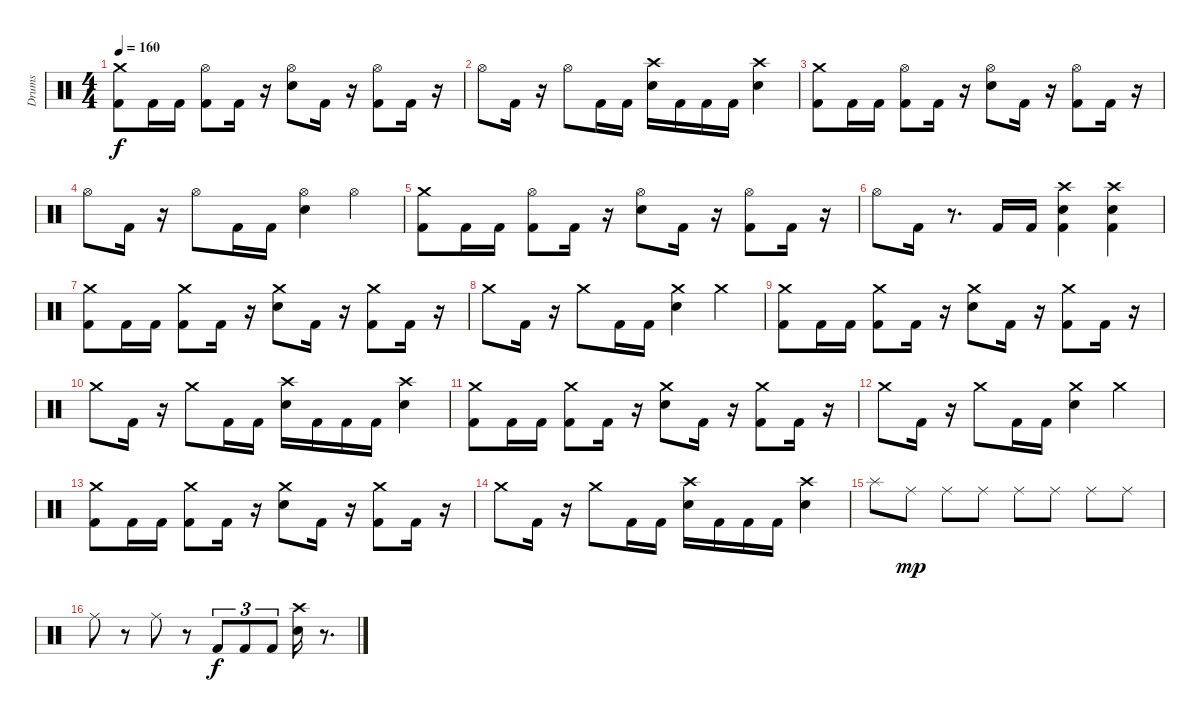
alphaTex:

\track ("Drums" "Drums") {instrument percussion}
\staff {score}
\articulation defaults
\ts (4 4)
\tempo 160
\clef neutral
\ks c
("Kick (hit) 2" "Crash medium (hit)").8{dy f} "Kick (hit) 2".16 "Kick (hit) 2".16 ("Kick (hit) 2" "Hi-Hat (open)").8 "Kick (hit) 2".16 r.16 ("Electric Snare (hit)" "Hi-Hat (open)").8 "Kick (hit) 2".16 r.16 ("Kick (hit) 2" "Hi-Hat (open)").8 "Kick (hit) 2".16 r.16 |
"Hi-Hat (open)".8 "Kick (hit) 2".16 r.16 "Hi-Hat (open)".8 "Kick (hit) 2".16 "Kick (hit) 2".16 ("Electric Snare (hit)" "Crash high (hit)").16 "Kick (hit) 2".16 "Kick (hit) 2".16 "Kick (hit) 2".16 ("Electric Snare (hit)" "Crash high (hit)").4 |
("Kick (hit) 2" "Crash medium (hit)").8 "Kick (hit) 2".16 "Kick (hit) 2".16 ("Kick (hit) 2" "Hi-Hat (open)").8 "Kick (hit) 2".16 r.16 ("Electric Snare (hit)" "Hi-Hat (open)").8 "Kick (hit) 2".16 r.16 ("Kick (hit) 2" "Hi-Hat (open)").8 "Kick (hit) 2".16 r.16 |
"Hi-Hat (open)".8 "Kick (hit) 2".16 r.16 "Hi-Hat (open)".8 "Kick (hit) 2".16 "Kick (hit) 2".16 ("Electric Snare (hit)" "Hi-Hat (open)").4 "Hi-Hat (open)".4 |
("Kick (hit) 2" "Crash medium (hit)").8 "Kick (hit) 2".16 "Kick (hit) 2".16 ("Kick (hit) 2" "Hi-Hat (open)").8 "Kick (hit) 2".16 r.16 ("Electric Snare (hit)" "Hi-Hat (open)").8 "Kick (hit) 2".16 r.16 ("Kick (hit) 2" "Hi-Hat (open)").8 "Kick (hit) 2".16 r.16 |
"Hi-Hat (open)".8 "Kick (hit) 2".16 r.8{d} "Kick (hit) 2".16 "Kick (hit) 2".16 ("Kick (hit) 2" "Electric Snare (hit)" "Crash high (hit)").4 ("Kick (hit) 2" "Electric Snare (hit)" "Crash high (hit)").4 |
("Kick (hit) 2" "Crash medium (hit)").8 "Kick (hit) 2".16 "Kick (hit) 2".16 ("Kick (hit) 2" "Crash medium (hit)").8 "Kick (hit) 2".16 r.16 ("Electric Snare (hit)" "Crash medium (hit)").8 "Kick (hit) 2".16 r.16 ("Kick (hit) 2" "Crash medium (hit)").8 "Kick (hit) 2".16 r.16 |
"Crash medium (hit)".8 "Kick (hit) 2".16 r.16 "Crash medium (hit)".8 "Kick (hit) 2".16 "Kick (hit) 2".16 ("Electric Snare (hit)" "Crash medium (hit)").4 "Crash medium (hit)".4 |
("Kick (hit) 2" "Crash medium (hit)").8 "Kick (hit) 2".16 "Kick (hit) 2".16 ("Kick (hit) 2" "Crash medium (hit)").8 "Kick (hit) 2".16 r.16 ("Electric Snare (hit)" "Crash medium (hit)").8 "Kick (hit) 2".16 r.16 ("Kick (hit) 2" "Crash medium (hit)").8 "Kick (hit) 2".16 r.16 |
"Crash medium (hit)".8 "Kick (hit) 2".16 r.16 "Crash medium (hit)".8 "Kick (hit) 2".16 "Kick (hit) 2".16 ("Electric Snare (hit)" "Crash high (hit)").16 "Kick (hit) 2".16 "Kick (hit) 2".16 "Kick (hit) 2".16 ("Electric Snare (hit)" "Crash high (hit)").4 |
("Kick (hit) 2" "Crash medium (hit)").8 "Kick (hit) 2".16 "Kick (hit) 2".16 ("Kick (hit) 2" "Crash medium (hit)").8 "Kick (hit) 2".16 r.16 ("Electric Snare (hit)" "Crash medium (hit)").8 "Kick (hit) 2".16 r.16 ("Kick (hit) 2" "Crash medium (hit)").8 "Kick (hit) 2".16 r.16 |
"Crash medium (hit)".8 "Kick (hit) 2".16 r.16 "Crash medium (hit)".8 "Kick (hit) 2".16 "Kick (hit) 2".16 ("Electric Snare (hit)" "Crash medium (hit)").4 "Crash medium (hit)".4 |
("Kick (hit) 2" "Crash medium (hit)").8 "Kick (hit) 2".16 "Kick (hit) 2".16 ("Kick (hit) 2" "Crash medium (hit)").8 "Kick (hit) 2".16 r.16 ("Electric Snare (hit)" "Crash medium (hit)").8 "Kick (hit) 2".16 r.16 ("Kick (hit) 2" "Crash medium (hit)").8 "Kick (hit) 2".16 r.16 |
"Crash medium (hit)".8 "Kick (hit) 2".16 r.16 "Crash medium (hit)".8 "Kick (hit) 2".16 "Kick (hit) 2".16 ("Electric Snare (hit)" "Crash high (hit)").16 "Kick (hit) 2".16 "Kick (hit) 2".16 "Kick (hit) 2".16 ("Electric Snare (hit)" "Crash high (hit)").4 |
"Splash (hit)".8 "Ride (middle)".8{dy mp} "Ride (middle)".8 "Ride (middle)".8 "Ride (middle)".8 "Ride (middle)".8 "Ride (middle)".8 "Ride (middle)".8 |
"Ride (middle)".8 r.8 "Ride (middle)".8 r.8 "Kick (hit) 2".8{tu (3 2) dy f} "Kick (hit) 2".8{tu (3 2)} "Kick (hit) 2".8{tu (3 2)} ("Electric Snare (hit)" "Crash high (hit)").16 r.8{d}
